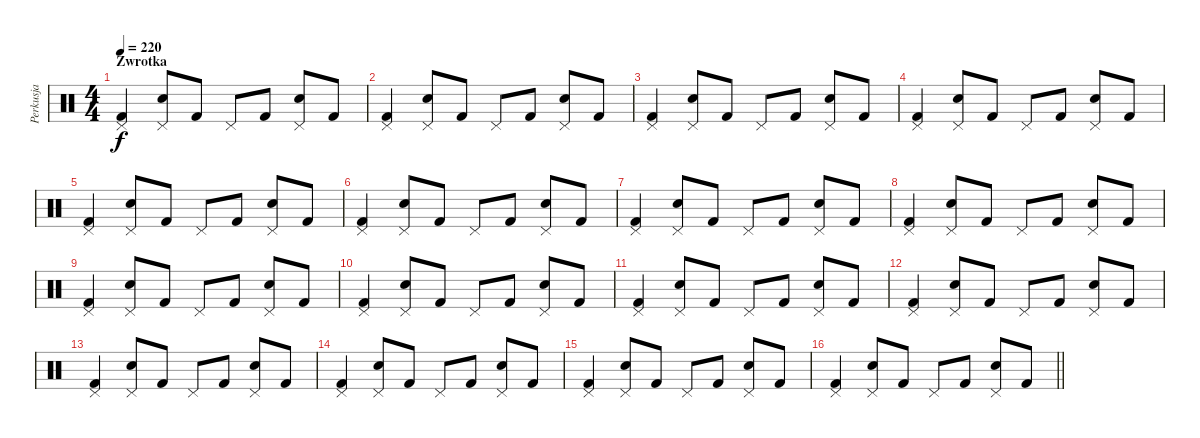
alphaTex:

\track ("Perkusja" "Perkusja") {instrument percussion}
\staff {score}
\articulation defaults
\ts (4 4)
\section ("" "Zwrotka")
\tempo 220
\clef neutral
\ks c
("Pedal Hi-Hat (hit)" "Kick (hit) 2").4{dy f} ("Pedal Hi-Hat (hit)" "Snare (hit) 2").8 "Kick (hit) 2".8 "Pedal Hi-Hat (hit)".8 "Kick (hit) 2".8 ("Pedal Hi-Hat (hit)" "Snare (hit) 2").8 "Kick (hit) 2".8 |
("Pedal Hi-Hat (hit)" "Kick (hit) 2").4 ("Pedal Hi-Hat (hit)" "Snare (hit) 2").8 "Kick (hit) 2".8 "Pedal Hi-Hat (hit)".8 "Kick (hit) 2".8 ("Pedal Hi-Hat (hit)" "Snare (hit) 2").8 "Kick (hit) 2".8 |
("Pedal Hi-Hat (hit)" "Kick (hit) 2").4 ("Pedal Hi-Hat (hit)" "Snare (hit) 2").8 "Kick (hit) 2".8 "Pedal Hi-Hat (hit)".8 "Kick (hit) 2".8 ("Pedal Hi-Hat (hit)" "Snare (hit) 2").8 "Kick (hit) 2".8 |
("Pedal Hi-Hat (hit)" "Kick (hit) 2").4 ("Pedal Hi-Hat (hit)" "Snare (hit) 2").8 "Kick (hit) 2".8 "Pedal Hi-Hat (hit)".8 "Kick (hit) 2".8 ("Pedal Hi-Hat (hit)" "Snare (hit) 2").8 "Kick (hit) 2".8 |
("Pedal Hi-Hat (hit)" "Kick (hit) 2").4 ("Pedal Hi-Hat (hit)" "Snare (hit) 2").8 "Kick (hit) 2".8 "Pedal Hi-Hat (hit)".8 "Kick (hit) 2".8 ("Pedal Hi-Hat (hit)" "Snare (hit) 2").8 "Kick (hit) 2".8 |
("Pedal Hi-Hat (hit)" "Kick (hit) 2").4 ("Pedal Hi-Hat (hit)" "Snare (hit) 2").8 "Kick (hit) 2".8 "Pedal Hi-Hat (hit)".8 "Kick (hit) 2".8 ("Pedal Hi-Hat (hit)" "Snare (hit) 2").8 "Kick (hit) 2".8 |
("Pedal Hi-Hat (hit)" "Kick (hit) 2").4 ("Pedal Hi-Hat (hit)" "Snare (hit) 2").8 "Kick (hit) 2".8 "Pedal Hi-Hat (hit)".8 "Kick (hit) 2".8 ("Pedal Hi-Hat (hit)" "Snare (hit) 2").8 "Kick (hit) 2".8 |
("Pedal Hi-Hat (hit)" "Kick (hit) 2").4 ("Pedal Hi-Hat (hit)" "Snare (hit) 2").8 "Kick (hit) 2".8 "Pedal Hi-Hat (hit)".8 "Kick (hit) 2".8 ("Pedal Hi-Hat (hit)" "Snare (hit) 2").8 "Kick (hit) 2".8 |
("Pedal Hi-Hat (hit)" "Kick (hit) 2").4 ("Pedal Hi-Hat (hit)" "Snare (hit) 2").8 "Kick (hit) 2".8 "Pedal Hi-Hat (hit)".8 "Kick (hit) 2".8 ("Pedal Hi-Hat (hit)" "Snare (hit) 2").8 "Kick (hit) 2".8 |
("Pedal Hi-Hat (hit)" "Kick (hit) 2").4 ("Pedal Hi-Hat (hit)" "Snare (hit) 2").8 "Kick (hit) 2".8 "Pedal Hi-Hat (hit)".8 "Kick (hit) 2".8 ("Pedal Hi-Hat (hit)" "Snare (hit) 2").8 "Kick (hit) 2".8 |
("Pedal Hi-Hat (hit)" "Kick (hit) 2").4 ("Pedal Hi-Hat (hit)" "Snare (hit) 2").8 "Kick (hit) 2".8 "Pedal Hi-Hat (hit)".8 "Kick (hit) 2".8 ("Pedal Hi-Hat (hit)" "Snare (hit) 2").8 "Kick (hit) 2".8 |
("Pedal Hi-Hat (hit)" "Kick (hit) 2").4 ("Pedal Hi-Hat (hit)" "Snare (hit) 2").8 "Kick (hit) 2".8 "Pedal Hi-Hat (hit)".8 "Kick (hit) 2".8 ("Pedal Hi-Hat (hit)" "Snare (hit) 2").8 "Kick (hit) 2".8 |
("Pedal Hi-Hat (hit)" "Kick (hit) 2").4 ("Pedal Hi-Hat (hit)" "Snare (hit) 2").8 "Kick (hit) 2".8 "Pedal Hi-Hat (hit)".8 "Kick (hit) 2".8 ("Pedal Hi-Hat (hit)" "Snare (hit) 2").8 "Kick (hit) 2".8 |
("Pedal Hi-Hat (hit)" "Kick (hit) 2").4 ("Pedal Hi-Hat (hit)" "Snare (hit) 2").8 "Kick (hit) 2".8 "Pedal Hi-Hat (hit)".8 "Kick (hit) 2".8 ("Pedal Hi-Hat (hit)" "Snare (hit) 2").8 "Kick (hit) 2".8 |
("Pedal Hi-Hat (hit)" "Kick (hit) 2").4 ("Pedal Hi-Hat (hit)" "Snare (hit) 2").8 "Kick (hit) 2".8 "Pedal Hi-Hat (hit)".8 "Kick (hit) 2".8 ("Pedal Hi-Hat (hit)" "Snare (hit) 2").8 "Kick (hit) 2".8 |
\barLineRight lightlight
("Pedal Hi-Hat (hit)" "Kick (hit) 2").4 ("Pedal Hi-Hat (hit)" "Snare (hit) 2").8 "Kick (hit) 2".8 "Pedal Hi-Hat (hit)".8 "Kick (hit) 2".8 ("Pedal Hi-Hat (hit)" "Snare (hit) 2").8 "Kick (hit) 2".8
